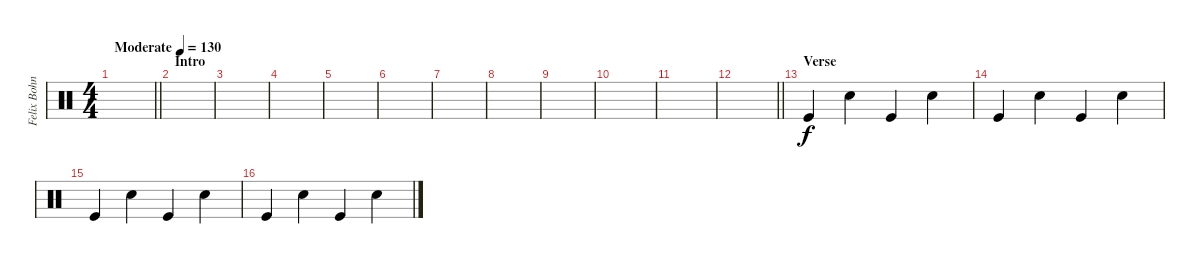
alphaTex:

\track ("Felix Bohnke" "Felix Bohn") {instrument percussion}
\staff {score}
\articulation defaults
\ts (4 4)
\tempo (130 "Moderate")
\clef neutral
\barLineRight lightlight
\ks c
|
\section ("" "Intro")
|
|
|
|
|
|
|
|
|
|
\barLineRight lightlight
|
\section ("" "Verse")
"Kick (hit)".4 "Snare (hit) 2".4 "Kick (hit)".4 "Snare (hit) 2".4 |
"Kick (hit)".4 "Snare (hit) 2".4 "Kick (hit)".4 "Snare (hit) 2".4 |
"Kick (hit)".4 "Snare (hit) 2".4 "Kick (hit)".4 "Snare (hit) 2".4 |
"Kick (hit)".4 "Snare (hit) 2".4 "Kick (hit)".4 "Snare (hit) 2".4
